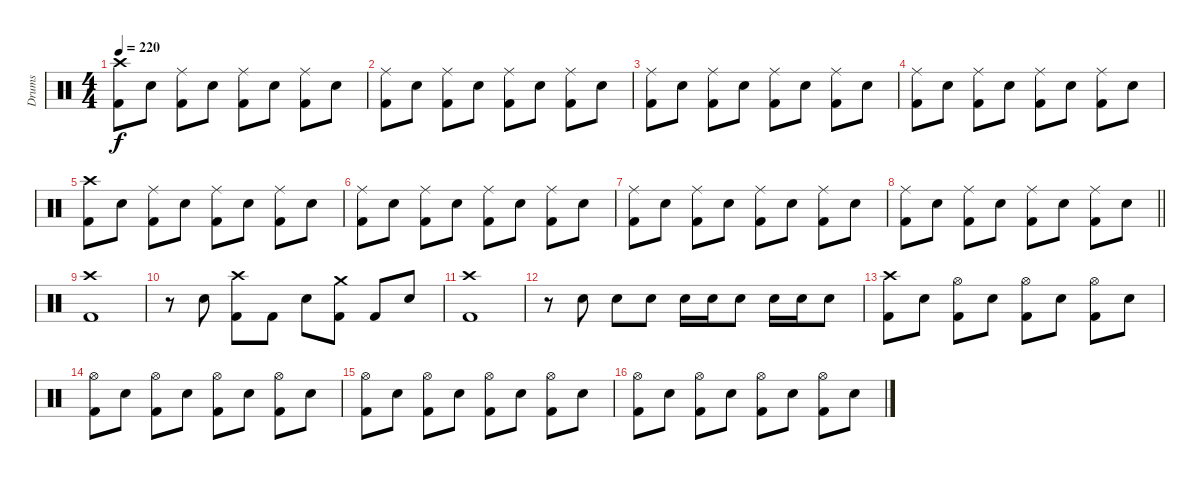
\track ("Drums" "Drums") {instrument percussion}
\staff {score}
\articulation defaults
\ts (4 4)
\tempo 220
\clef neutral
\ks c
("Crash high (hit)" "Kick (hit) 2").8{dy f} "Electric Snare (hit)".8 ("Ride (middle)" "Kick (hit) 2").8 "Electric Snare (hit)".8 ("Ride (middle)" "Kick (hit) 2").8 "Electric Snare (hit)".8 ("Ride (middle)" "Kick (hit) 2").8 "Electric Snare (hit)".8 |
("Ride (middle)" "Kick (hit) 2").8 "Electric Snare (hit)".8 ("Ride (middle)" "Kick (hit) 2").8 "Electric Snare (hit)".8 ("Ride (middle)" "Kick (hit) 2").8 "Electric Snare (hit)".8 ("Ride (middle)" "Kick (hit) 2").8 "Electric Snare (hit)".8 |
("Ride (middle)" "Kick (hit) 2").8 "Electric Snare (hit)".8 ("Ride (middle)" "Kick (hit) 2").8 "Electric Snare (hit)".8 ("Ride (middle)" "Kick (hit) 2").8 "Electric Snare (hit)".8 ("Ride (middle)" "Kick (hit) 2").8 "Electric Snare (hit)".8 |
("Ride (middle)" "Kick (hit) 2").8 "Electric Snare (hit)".8 ("Ride (middle)" "Kick (hit) 2").8 "Electric Snare (hit)".8 ("Ride (middle)" "Kick (hit) 2").8 "Electric Snare (hit)".8 ("Ride (middle)" "Kick (hit) 2").8 "Electric Snare (hit)".8 |
("Crash high (hit)" "Kick (hit) 2").8 "Electric Snare (hit)".8 ("Ride (middle)" "Kick (hit) 2").8 "Electric Snare (hit)".8 ("Ride (middle)" "Kick (hit) 2").8 "Electric Snare (hit)".8 ("Ride (middle)" "Kick (hit) 2").8 "Electric Snare (hit)".8 |
("Ride (middle)" "Kick (hit) 2").8 "Electric Snare (hit)".8 ("Ride (middle)" "Kick (hit) 2").8 "Electric Snare (hit)".8 ("Ride (middle)" "Kick (hit) 2").8 "Electric Snare (hit)".8 ("Ride (middle)" "Kick (hit) 2").8 "Electric Snare (hit)".8 |
("Ride (middle)" "Kick (hit) 2").8 "Electric Snare (hit)".8 ("Ride (middle)" "Kick (hit) 2").8 "Electric Snare (hit)".8 ("Ride (middle)" "Kick (hit) 2").8 "Electric Snare (hit)".8 ("Ride (middle)" "Kick (hit) 2").8 "Electric Snare (hit)".8 |
\barLineRight lightlight
("Ride (middle)" "Kick (hit) 2").8 "Electric Snare (hit)".8 ("Ride (middle)" "Kick (hit) 2").8 "Electric Snare (hit)".8 ("Ride (middle)" "Kick (hit) 2").8 "Electric Snare (hit)".8 ("Ride (middle)" "Kick (hit) 2").8 "Electric Snare (hit)".8 |
("Crash high (hit)" "Kick (hit) 2").1 |
r.8 "Electric Snare (hit)".8 ("Crash high (hit)" "Kick (hit) 2").8 "Kick (hit) 2".8 "Electric Snare (hit)".8 ("Crash medium (hit)" "Kick (hit) 2").8 "Kick (hit) 2".8 "Electric Snare (hit)".8 |
("Crash high (hit)" "Kick (hit) 2").1 |
r.8 "Electric Snare (hit)".8 "Electric Snare (hit)".8 "Electric Snare (hit)".8 "Electric Snare (hit)".16 "Electric Snare (hit)".16 "Electric Snare (hit)".8 "Electric Snare (hit)".16 "Electric Snare (hit)".16 "Electric Snare (hit)".8 |
("Crash high (hit)" "Kick (hit) 2").8 "Electric Snare (hit)".8 ("Hi-Hat (open)" "Kick (hit) 2").8 "Electric Snare (hit)".8 ("Hi-Hat (open)" "Kick (hit) 2").8 "Electric Snare (hit)".8 ("Hi-Hat (open)" "Kick (hit) 2").8 "Electric Snare (hit)".8 |
("Hi-Hat (open)" "Kick (hit) 2").8 "Electric Snare (hit)".8 ("Hi-Hat (open)" "Kick (hit) 2").8 "Electric Snare (hit)".8 ("Hi-Hat (open)" "Kick (hit) 2").8 "Electric Snare (hit)".8 ("Hi-Hat (open)" "Kick (hit) 2").8 "Electric Snare (hit)".8 |
("Hi-Hat (open)" "Kick (hit) 2").8 "Electric Snare (hit)".8 ("Hi-Hat (open)" "Kick (hit) 2").8 "Electric Snare (hit)".8 ("Hi-Hat (open)" "Kick (hit) 2").8 "Electric Snare (hit)".8 ("Hi-Hat (open)" "Kick (hit) 2").8 "Electric Snare (hit)".8 |
("Hi-Hat (open)" "Kick (hit) 2").8 "Electric Snare (hit)".8 ("Hi-Hat (open)" "Kick (hit) 2").8 "Electric Snare (hit)".8 ("Hi-Hat (open)" "Kick (hit) 2").8 "Electric Snare (hit)".8 ("Hi-Hat (open)" "Kick (hit) 2").8 "Electric Snare (hit)".8
